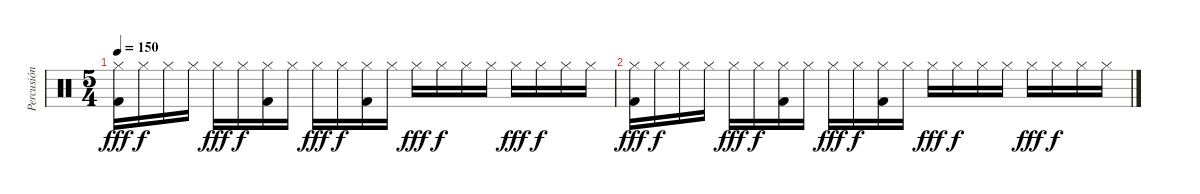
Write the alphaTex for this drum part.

\track ("Percusión" "Percusión") {instrument percussion}
\staff {score}
\articulation defaults
\ts (5 4)
\tempo 150
\clef neutral
\ks c
("Hi-Hat (closed)" "Kick (hit) 2").16{dy fff} "Hi-Hat (closed)".16{dy f} "Hi-Hat (closed)".16 "Hi-Hat (closed)".16 "Hi-Hat (closed)".16{dy fff} "Hi-Hat (closed)".16{dy f} ("Hi-Hat (closed)" "Kick (hit) 2").16 "Hi-Hat (closed)".16 "Hi-Hat (closed)".16{dy fff} "Hi-Hat (closed)".16{dy f} ("Hi-Hat (closed)" "Kick (hit) 2").16 "Hi-Hat (closed)".16 "Hi-Hat (closed)".16{dy fff} "Hi-Hat (closed)".16{dy f} "Hi-Hat (closed)".16 "Hi-Hat (closed)".16 "Hi-Hat (closed)".16{dy fff} "Hi-Hat (closed)".16{dy f} "Hi-Hat (closed)".16 "Hi-Hat (closed)".16 |
("Hi-Hat (closed)" "Kick (hit) 2").16{dy fff} "Hi-Hat (closed)".16{dy f} "Hi-Hat (closed)".16 "Hi-Hat (closed)".16 "Hi-Hat (closed)".16{dy fff} "Hi-Hat (closed)".16{dy f} ("Hi-Hat (closed)" "Kick (hit) 2").16 "Hi-Hat (closed)".16 "Hi-Hat (closed)".16{dy fff} "Hi-Hat (closed)".16{dy f} ("Hi-Hat (closed)" "Kick (hit) 2").16 "Hi-Hat (closed)".16 "Hi-Hat (closed)".16{dy fff} "Hi-Hat (closed)".16{dy f} "Hi-Hat (closed)".16 "Hi-Hat (closed)".16 "Hi-Hat (closed)".16{dy fff} "Hi-Hat (closed)".16{dy f} "Hi-Hat (closed)".16 "Hi-Hat (closed)".16
